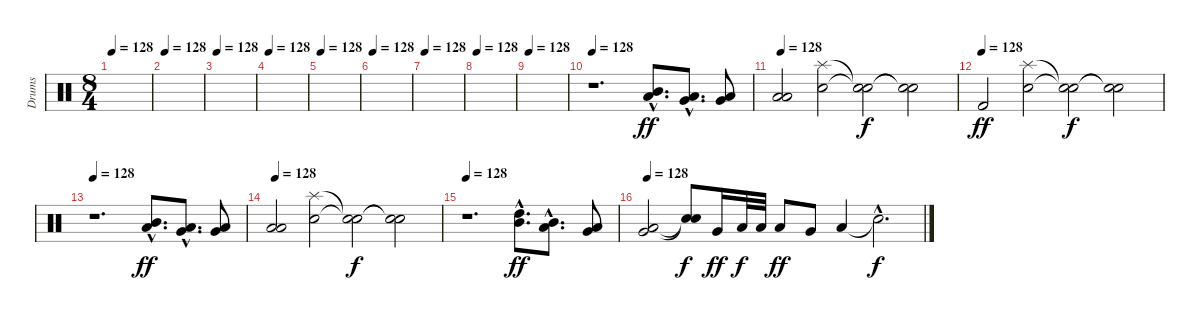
\track ("Drums" "Drums") {instrument percussion}
\staff {score}
\articulation defaults
\ts (8 4)
\tempo 128
\clef neutral
\ks c
|
\tempo 128
|
\tempo 128
|
\tempo 128
|
\tempo 128
|
\tempo 128
|
\tempo 128
|
\tempo 128
|
\tempo 128
|
\tempo 128
r.1{d volume 14} ("Mid Tom (hit)"{hac} "Low Tom (hit)"{hac}).8{d dy ff} ("Low Tom (hit)"{hac} "Very Low Tom (hit)"{hac}).8{d} ("Very Low Tom (hit)" "Low Floor Tom (hit)").8 |
\tempo 128
("Low Floor Tom (hit)" "Low Floor Tom (hit)").2{volume 14} ("Splash (hit)" "Electric Snare (hit)").2 ("Snare (hit)"{t} "Snare (hit)"{t}).2{dy f} ("Snare (hit)"{t} "Snare (hit)"{t}).2 |
\tempo (128)
"Kick (hit) 2".2{dy ff volume 14} ("Splash (hit)" "Electric Snare (hit)").2 ("Snare (hit)"{t} "Snare (hit)"{t}).2{dy f} ("Snare (hit)"{t} "Snare (hit)"{t}).2 |
\tempo 128
r.1{d volume 14} ("Mid Tom (hit)"{hac} "Low Tom (hit)"{hac}).8{d dy ff} ("Low Tom (hit)"{hac} "Very Low Tom (hit)"{hac}).8{d} ("Very Low Tom (hit)" "Low Floor Tom (hit)").8 |
\tempo 128
("Low Floor Tom (hit)" "Low Floor Tom (hit)").2{volume 14} ("Splash (hit)" "Electric Snare (hit)").2 ("Snare (hit)"{t} "Snare (hit)"{t}).2{dy f} ("Snare (hit)"{t} "Snare (hit)"{t}).2 |
\tempo 128
r.1{d volume 14} ("High Tom (hit)"{hac} "Mid Tom (hit)"{hac}).8{d dy ff} ("Mid Tom (hit)"{hac} "Low Tom (hit)"{hac}).8{d} ("Low Tom (hit)" "Very Low Tom (hit)").8 |
\tempo 128
("Very Low Tom (hit)" "Low Floor Tom (hit)").2{volume 14} ("Snare (hit)"{t} "Snare (hit)"{t}).8{dy f} "Very Low Tom (hit)".16{dy ff} "Low Floor Tom (hit)".32{dy f} "Low Floor Tom (hit)".32 "Low Floor Tom (hit)".8{dy ff} "Very Low Tom (hit)".8 "Low Floor Tom (hit)".4 "Snare (hit)"{hac t}.2{d dy f}
